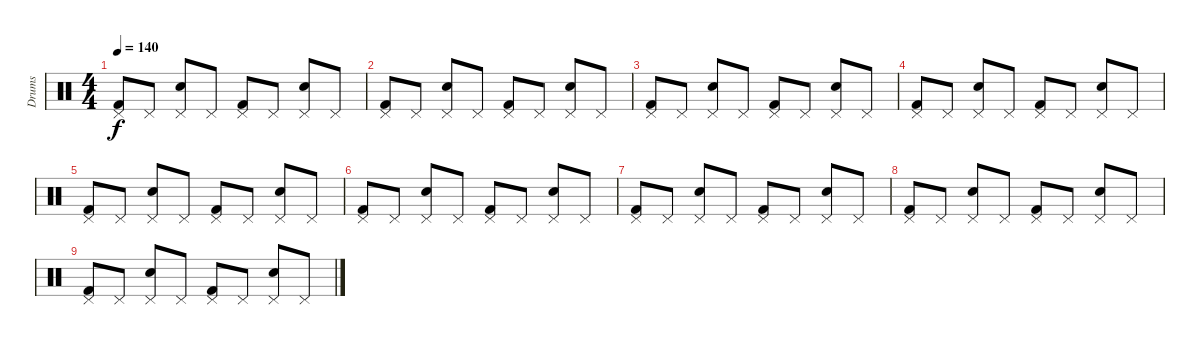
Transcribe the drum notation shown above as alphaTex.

\track ("Drums" "Drums") {instrument percussion}
\staff {score}
\articulation defaults
\ts (4 4)
\tempo 140
\clef neutral
\ks c
("Kick (hit) 2" "Pedal Hi-Hat (hit)").8{dy f} "Pedal Hi-Hat (hit)".8 ("Snare (hit) 2" "Pedal Hi-Hat (hit)").8 "Pedal Hi-Hat (hit)".8 ("Kick (hit) 2" "Pedal Hi-Hat (hit)").8 "Pedal Hi-Hat (hit)".8 ("Snare (hit) 2" "Pedal Hi-Hat (hit)").8 "Pedal Hi-Hat (hit)".8 |
("Kick (hit) 2" "Pedal Hi-Hat (hit)").8 "Pedal Hi-Hat (hit)".8 ("Snare (hit) 2" "Pedal Hi-Hat (hit)").8 "Pedal Hi-Hat (hit)".8 ("Kick (hit) 2" "Pedal Hi-Hat (hit)").8 "Pedal Hi-Hat (hit)".8 ("Snare (hit) 2" "Pedal Hi-Hat (hit)").8 "Pedal Hi-Hat (hit)".8 |
("Kick (hit) 2" "Pedal Hi-Hat (hit)").8 "Pedal Hi-Hat (hit)".8 ("Snare (hit) 2" "Pedal Hi-Hat (hit)").8 "Pedal Hi-Hat (hit)".8 ("Kick (hit) 2" "Pedal Hi-Hat (hit)").8 "Pedal Hi-Hat (hit)".8 ("Snare (hit) 2" "Pedal Hi-Hat (hit)").8 "Pedal Hi-Hat (hit)".8 |
("Kick (hit) 2" "Pedal Hi-Hat (hit)").8 "Pedal Hi-Hat (hit)".8 ("Snare (hit) 2" "Pedal Hi-Hat (hit)").8 "Pedal Hi-Hat (hit)".8 ("Kick (hit) 2" "Pedal Hi-Hat (hit)").8 "Pedal Hi-Hat (hit)".8 ("Snare (hit) 2" "Pedal Hi-Hat (hit)").8 "Pedal Hi-Hat (hit)".8 |
("Kick (hit) 2" "Pedal Hi-Hat (hit)").8 "Pedal Hi-Hat (hit)".8 ("Snare (hit) 2" "Pedal Hi-Hat (hit)").8 "Pedal Hi-Hat (hit)".8 ("Kick (hit) 2" "Pedal Hi-Hat (hit)").8 "Pedal Hi-Hat (hit)".8 ("Snare (hit) 2" "Pedal Hi-Hat (hit)").8 "Pedal Hi-Hat (hit)".8 |
("Kick (hit) 2" "Pedal Hi-Hat (hit)").8 "Pedal Hi-Hat (hit)".8 ("Snare (hit) 2" "Pedal Hi-Hat (hit)").8 "Pedal Hi-Hat (hit)".8 ("Kick (hit) 2" "Pedal Hi-Hat (hit)").8 "Pedal Hi-Hat (hit)".8 ("Snare (hit) 2" "Pedal Hi-Hat (hit)").8 "Pedal Hi-Hat (hit)".8 |
("Kick (hit) 2" "Pedal Hi-Hat (hit)").8 "Pedal Hi-Hat (hit)".8 ("Snare (hit) 2" "Pedal Hi-Hat (hit)").8 "Pedal Hi-Hat (hit)".8 ("Kick (hit) 2" "Pedal Hi-Hat (hit)").8 "Pedal Hi-Hat (hit)".8 ("Snare (hit) 2" "Pedal Hi-Hat (hit)").8 "Pedal Hi-Hat (hit)".8 |
("Kick (hit) 2" "Pedal Hi-Hat (hit)").8 "Pedal Hi-Hat (hit)".8 ("Snare (hit) 2" "Pedal Hi-Hat (hit)").8 "Pedal Hi-Hat (hit)".8 ("Kick (hit) 2" "Pedal Hi-Hat (hit)").8 "Pedal Hi-Hat (hit)".8 ("Snare (hit) 2" "Pedal Hi-Hat (hit)").8 "Pedal Hi-Hat (hit)".8 |
("Kick (hit) 2" "Pedal Hi-Hat (hit)").8 "Pedal Hi-Hat (hit)".8 ("Snare (hit) 2" "Pedal Hi-Hat (hit)").8 "Pedal Hi-Hat (hit)".8 ("Kick (hit) 2" "Pedal Hi-Hat (hit)").8 "Pedal Hi-Hat (hit)".8 ("Snare (hit) 2" "Pedal Hi-Hat (hit)").8 "Pedal Hi-Hat (hit)".8
